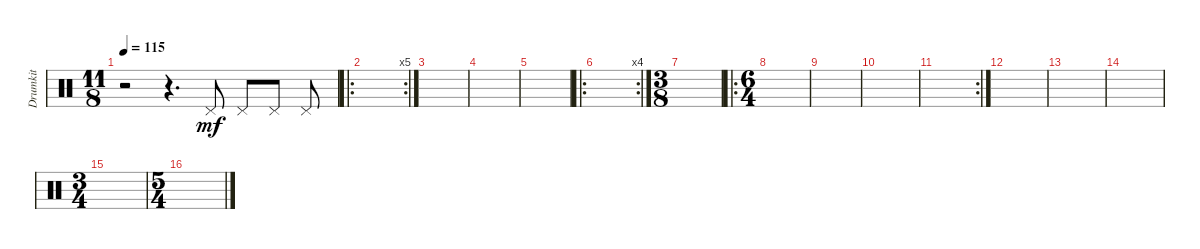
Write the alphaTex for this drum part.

\track ("Drumkit" "Drumkit") {instrument percussion}
\staff {score}
\articulation defaults
\ts (11 8)
\tempo 115
\clef neutral
\ks c
r.2{dy mf} r.4{d} "Pedal Hi-Hat (hit)".8 "Pedal Hi-Hat (hit)".8 "Pedal Hi-Hat (hit)".8 "Pedal Hi-Hat (hit)".8 |
\ro
\rc 5
|
|
|
|
\ro
\rc 4
|
\ts (3 8)
|
\ro
\ts (6 4)
|
|
|
\rc 2
|
|
|
|
\ts (3 4)
|
\ts (5 4)
